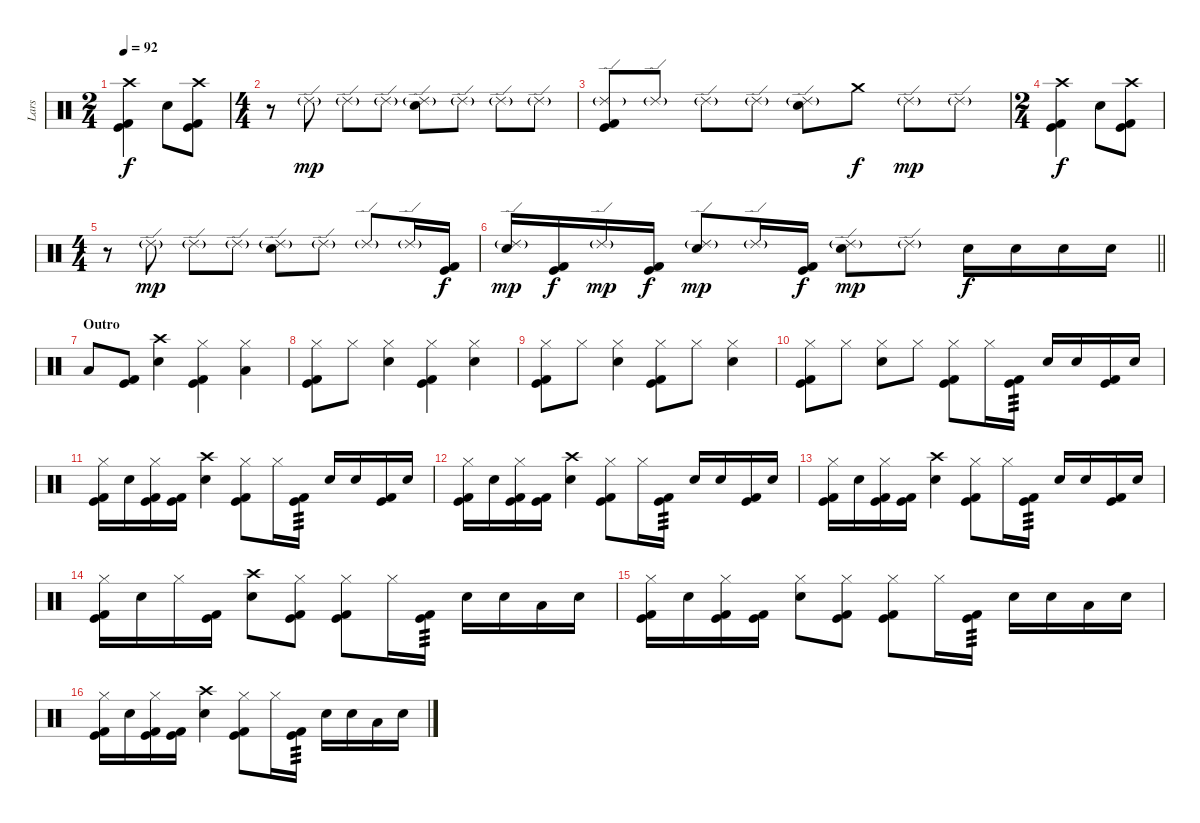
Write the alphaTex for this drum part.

\track ("Lars" "Lars") {instrument percussion}
\staff {score}
\articulation defaults
\ts (2 4)
\tempo 92
\clef neutral
\ks c
("Crash high (hit)" "Kick (hit)" "Kick (hit) 2").4{dy f} "Electric Snare (hit)".8 ("Crash high (hit)" "Kick (hit)" "Kick (hit) 2").8 |
\ts (4 4)
r.8 "Ride (edge) 2"{g}.8{dy mp} "Ride (edge) 2"{g}.8 "Ride (edge) 2"{g}.8 ("Ride (edge) 2"{g} "Electric Snare (hit)").8 "Ride (edge) 2"{g}.8 "Ride (edge) 2"{g}.8 "Ride (edge) 2"{g}.8 |
("Ride (edge) 2"{g} "Kick (hit)" "Kick (hit) 2").8 "Ride (edge) 2"{g}.8 "Ride (edge) 2"{g}.8 "Ride (edge) 2"{g}.8 ("Ride (edge) 2"{g} "Electric Snare (hit)").8 "Crash medium (hit)".8{dy f} "Ride (edge) 2"{g}.8{dy mp} "Ride (edge) 2"{g}.8 |
\ts (2 4)
("Crash high (hit)" "Kick (hit)" "Kick (hit) 2").4{dy f} "Electric Snare (hit)".8 ("Crash high (hit)" "Kick (hit)" "Kick (hit) 2").8 |
\ts (4 4)
r.8 "Ride (edge) 2"{g}.8{dy mp} "Ride (edge) 2"{g}.8 "Ride (edge) 2"{g}.8 ("Ride (edge) 2"{g} "Electric Snare (hit)").8 "Ride (edge) 2"{g}.8 "Ride (edge) 2"{g}.8 "Ride (edge) 2"{g}.16 ("Kick (hit)" "Kick (hit) 2").16{dy f} |
\barLineRight lightlight
("Ride (edge) 2"{g} "Electric Snare (hit)").16{dy mp} ("Kick (hit)" "Kick (hit) 2").16{dy f} "Ride (edge) 2"{g}.16{dy mp} ("Kick (hit)" "Kick (hit) 2").16{dy f} ("Ride (edge) 2"{g} "Electric Snare (hit)").8{dy mp} "Ride (edge) 2"{g}.16 ("Kick (hit)" "Kick (hit) 2").16{dy f} ("Ride (edge) 2"{g} "Electric Snare (hit)").8{dy mp} "Ride (edge) 2"{g}.8 "Electric Snare (hit)".16{dy f} "Electric Snare (hit)".16 "Electric Snare (hit)".16 "Electric Snare (hit)".16 |
\section ("" "Outro")
"Low Tom (hit)".8 ("Kick (hit)" "Kick (hit) 2").8 ("Crash high (hit)" "Electric Snare (hit)").4 ("Hi-Hat (closed)" "Kick (hit)" "Kick (hit) 2").4 ("Hi-Hat (closed)" "Low Tom (hit)").4 |
("Hi-Hat (closed)" "Kick (hit)" "Kick (hit) 2").8 "Hi-Hat (closed)".8 ("Hi-Hat (closed)" "Electric Snare (hit)").4 ("Hi-Hat (closed)" "Kick (hit)" "Kick (hit) 2").4 ("Hi-Hat (closed)" "Electric Snare (hit)").4 |
("Hi-Hat (closed)" "Kick (hit)" "Kick (hit) 2").8 "Hi-Hat (closed)".8 ("Hi-Hat (closed)" "Electric Snare (hit)").4 ("Hi-Hat (closed)" "Kick (hit)" "Kick (hit) 2").8 "Hi-Hat (closed)".8 ("Hi-Hat (closed)" "Electric Snare (hit)").4 |
("Hi-Hat (closed)" "Kick (hit)" "Kick (hit) 2").8 "Hi-Hat (closed)".8 ("Hi-Hat (closed)" "Electric Snare (hit)").8 "Hi-Hat (closed)".8 ("Hi-Hat (closed)" "Kick (hit)" "Kick (hit) 2").8 "Hi-Hat (closed)".16 ("Kick (hit)" "Kick (hit) 2").16{tp 3} "Electric Snare (hit)".16 "Electric Snare (hit)".16 ("Kick (hit)" "Kick (hit) 2").16 "Electric Snare (hit)".16 |
("Hi-Hat (closed)" "Kick (hit)" "Kick (hit) 2").16 "Electric Snare (hit)".16 ("Hi-Hat (closed)" "Kick (hit)" "Kick (hit) 2").16 ("Kick (hit)" "Kick (hit) 2").16 ("Crash high (hit)" "Electric Snare (hit)").4 ("Hi-Hat (closed)" "Kick (hit)" "Kick (hit) 2").8 "Hi-Hat (closed)".16 ("Kick (hit)" "Kick (hit) 2").16{tp 3} "Electric Snare (hit)".16 "Electric Snare (hit)".16 ("Kick (hit)" "Kick (hit) 2").16 "Electric Snare (hit)".16 |
("Hi-Hat (closed)" "Kick (hit)" "Kick (hit) 2").16 "Electric Snare (hit)".16 ("Hi-Hat (closed)" "Kick (hit)" "Kick (hit) 2").16 ("Kick (hit)" "Kick (hit) 2").16 ("Crash high (hit)" "Electric Snare (hit)").4 ("Hi-Hat (closed)" "Kick (hit)" "Kick (hit) 2").8 "Hi-Hat (closed)".16 ("Kick (hit)" "Kick (hit) 2").16{tp 3} "Electric Snare (hit)".16 "Electric Snare (hit)".16 ("Kick (hit)" "Kick (hit) 2").16 "Electric Snare (hit)".16 |
("Hi-Hat (closed)" "Kick (hit)" "Kick (hit) 2").16 "Electric Snare (hit)".16 ("Hi-Hat (closed)" "Kick (hit)" "Kick (hit) 2").16 ("Kick (hit)" "Kick (hit) 2").16 ("Crash high (hit)" "Electric Snare (hit)").4 ("Hi-Hat (closed)" "Kick (hit)" "Kick (hit) 2").8 "Hi-Hat (closed)".16 ("Kick (hit)" "Kick (hit) 2").16{tp 3} "Electric Snare (hit)".16 "Electric Snare (hit)".16 ("Kick (hit)" "Kick (hit) 2").16 "Electric Snare (hit)".16 |
("Hi-Hat (closed)" "Kick (hit)" "Kick (hit) 2").16 "Electric Snare (hit)".16 "Hi-Hat (closed)".16 ("Kick (hit)" "Kick (hit) 2").16 ("Crash high (hit)" "Electric Snare (hit)").8 ("Hi-Hat (closed)" "Kick (hit)" "Kick (hit) 2").8 ("Hi-Hat (closed)" "Kick (hit)" "Kick (hit) 2").8 "Hi-Hat (closed)".16 ("Kick (hit)" "Kick (hit) 2").16{tp 3} "Electric Snare (hit)".16 "Electric Snare (hit)".16 "Low Floor Tom (hit)".16 "Electric Snare (hit)".16 |
("Hi-Hat (closed)" "Kick (hit)" "Kick (hit) 2").16 "Electric Snare (hit)".16 ("Hi-Hat (closed)" "Kick (hit)" "Kick (hit) 2").16 ("Kick (hit)" "Kick (hit) 2").16 ("Hi-Hat (closed)" "Electric Snare (hit)").8 ("Hi-Hat (closed)" "Kick (hit)" "Kick (hit) 2").8 ("Hi-Hat (closed)" "Kick (hit)" "Kick (hit) 2").8 "Hi-Hat (closed)".16 ("Kick (hit)" "Kick (hit) 2").16{tp 3} "Electric Snare (hit)".16 "Electric Snare (hit)".16 "Low Floor Tom (hit)".16 "Electric Snare (hit)".16 |
("Hi-Hat (closed)" "Kick (hit)" "Kick (hit) 2").16 "Electric Snare (hit)".16 ("Hi-Hat (closed)" "Kick (hit)" "Kick (hit) 2").16 ("Kick (hit)" "Kick (hit) 2").16 ("Crash high (hit)" "Electric Snare (hit)").4 ("Hi-Hat (closed)" "Kick (hit)" "Kick (hit) 2").8 "Hi-Hat (closed)".16 ("Kick (hit)" "Kick (hit) 2").16{tp 3} "Electric Snare (hit)".16 "Electric Snare (hit)".16 "Low Tom (hit)".16 "Electric Snare (hit)".16
